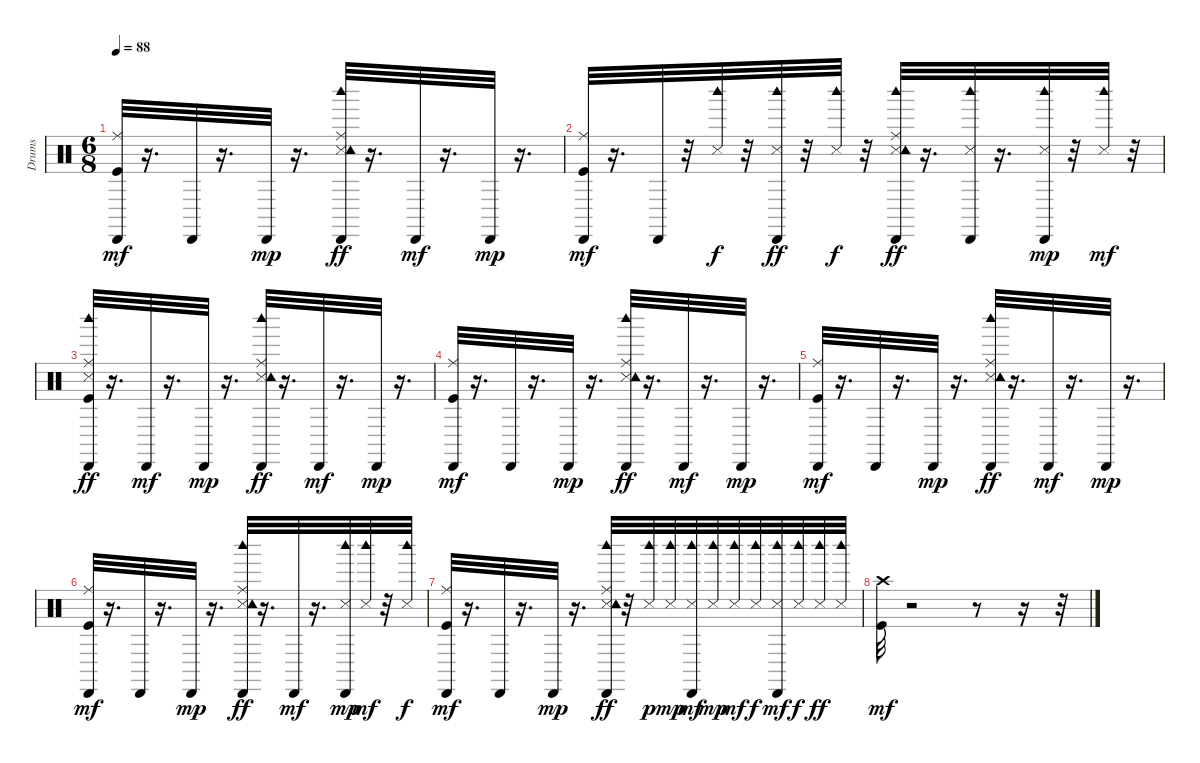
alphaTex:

\track ("Drums               " "Drums     ") {instrument percussion}
\staff {score}
\articulation defaults
\ts (6 8)
\tempo 88
\clef neutral
\ks c
("Kick (hit)" "Ride (middle)" "Cabasa (hit)").32{dy mf} r.16{d} "Cabasa (hit)".32 r.16{d} "Cabasa (hit)".32{dy mp} r.16{d} ("Snare (side stick) 3" "Ride (middle)" "Tambourine (hit)" "Cabasa (hit)" "Woodblock high (hit)").32{dy ff} r.16{d} "Cabasa (hit)".32{dy mf} r.16{d} "Cabasa (hit)".32{dy mp} r.16{d} |
("Kick (hit)" "Ride (middle)" "Cabasa (hit)").32{dy mf} r.16{d} "Cabasa (hit)".32 r.32 ("Snare (side stick) 3" "Woodblock high (hit)").32{dy f} r.32 ("Snare (side stick) 3" "Cabasa (hit)" "Woodblock high (hit)").32{dy ff} r.32 ("Snare (side stick) 3" "Woodblock high (hit)").32{dy f} r.32 ("Snare (side stick) 3" "Ride (middle)" "Tambourine (hit)" "Cabasa (hit)" "Woodblock high (hit)").32{dy ff} r.16{d} ("Snare (side stick) 3" "Cabasa (hit)" "Woodblock high (hit)").32 r.16{d} ("Snare (side stick) 3" "Cabasa (hit)" "Woodblock high (hit)").32{dy mp} r.32 ("Snare (side stick) 3" "Woodblock high (hit)").32{dy mf} r.32 |
("Kick (hit)" "Snare (side stick) 3" "Ride (middle)" "Cabasa (hit)" "Woodblock high (hit)").32{dy ff} r.16{d} "Cabasa (hit)".32{dy mf} r.16{d} "Cabasa (hit)".32{dy mp} r.16{d} ("Snare (side stick) 3" "Ride (middle)" "Tambourine (hit)" "Cabasa (hit)" "Woodblock high (hit)").32{dy ff} r.16{d} "Cabasa (hit)".32{dy mf} r.16{d} "Cabasa (hit)".32{dy mp} r.16{d} |
("Kick (hit)" "Ride (middle)" "Cabasa (hit)").32{dy mf} r.16{d} "Cabasa (hit)".32 r.16{d} "Cabasa (hit)".32{dy mp} r.16{d} ("Snare (side stick) 3" "Ride (middle)" "Tambourine (hit)" "Cabasa (hit)" "Woodblock high (hit)").32{dy ff} r.16{d} "Cabasa (hit)".32{dy mf} r.16{d} "Cabasa (hit)".32{dy mp} r.16{d} |
("Kick (hit)" "Ride (middle)" "Cabasa (hit)").32{dy mf} r.16{d} "Cabasa (hit)".32 r.16{d} "Cabasa (hit)".32{dy mp} r.16{d} ("Snare (side stick) 3" "Ride (middle)" "Tambourine (hit)" "Cabasa (hit)" "Woodblock high (hit)").32{dy ff} r.16{d} "Cabasa (hit)".32{dy mf} r.16{d} "Cabasa (hit)".32{dy mp} r.16{d} |
("Kick (hit)" "Ride (middle)" "Cabasa (hit)").32{dy mf} r.16{d} "Cabasa (hit)".32 r.16{d} "Cabasa (hit)".32{dy mp} r.16{d} ("Snare (side stick) 3" "Ride (middle)" "Tambourine (hit)" "Cabasa (hit)" "Woodblock high (hit)").32{dy ff} r.16{d} "Cabasa (hit)".32{dy mf} r.16{d} ("Snare (side stick) 3" "Cabasa (hit)" "Woodblock high (hit)").32{dy mp} ("Snare (side stick) 3" "Woodblock high (hit)").32{dy mf} r.32 ("Snare (side stick) 3" "Woodblock high (hit)").32{dy f} |
("Kick (hit)" "Ride (middle)" "Cabasa (hit)").32{dy mf} r.16{d} "Cabasa (hit)".32 r.16{d} "Cabasa (hit)".32{dy mp} r.16{d} ("Snare (side stick) 3" "Ride (middle)" "Tambourine (hit)" "Cabasa (hit)" "Woodblock high (hit)").32{dy ff} r.32 ("Snare (side stick) 3" "Woodblock high (hit)").32{dy p} ("Snare (side stick) 3" "Woodblock high (hit)").32{dy mp} ("Snare (side stick) 3" "Cabasa (hit)" "Woodblock high (hit)").32{dy mf} ("Snare (side stick) 3" "Woodblock high (hit)").32{dy mp} ("Snare (side stick) 3" "Woodblock high (hit)").32{dy mf} ("Snare (side stick) 3" "Woodblock high (hit)").32{dy f} ("Snare (side stick) 3" "Cabasa (hit)" "Woodblock high (hit)").32{dy mf} ("Snare (side stick) 3" "Woodblock high (hit)").32{dy f} ("Snare (side stick) 3" "Woodblock high (hit)").32{dy ff} ("Snare (side stick) 3" "Woodblock high (hit)").32 |
("Kick (hit)" "Crash high (hit)").32{dy mf} r.2 r.8 r.16 r.32
